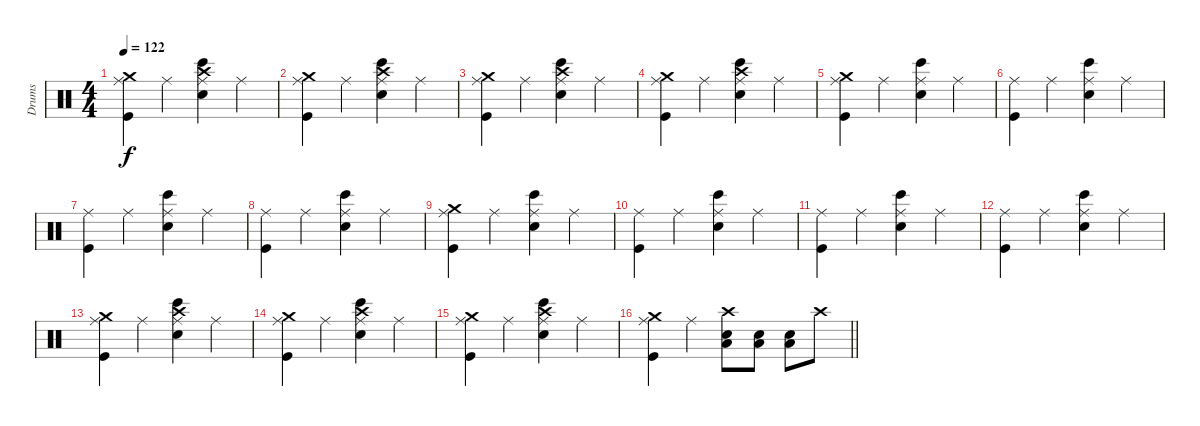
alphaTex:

\track ("Drums" "Drums") {instrument percussion}
\staff {score}
\articulation defaults
\ts (4 4)
\tempo 122
\clef neutral
\ks c
("Crash medium (hit)" "Ride (middle)" "Kick (hit)").4{dy f} "Ride (middle)".4 ("Crash high (hit)" "Ride (middle)" "Snare (hit) 2" "Bongo High (hit)").4 "Ride (middle)".4 |
("Crash medium (hit)" "Ride (middle)" "Kick (hit)").4 "Ride (middle)".4 ("Crash high (hit)" "Ride (middle)" "Snare (hit) 2" "Bongo High (hit)").4 "Ride (middle)".4 |
("Crash medium (hit)" "Ride (middle)" "Kick (hit)").4 "Ride (middle)".4 ("Crash high (hit)" "Ride (middle)" "Snare (hit) 2" "Bongo High (hit)").4 "Ride (middle)".4 |
("Crash medium (hit)" "Ride (middle)" "Kick (hit)").4 "Ride (middle)".4 ("Crash high (hit)" "Ride (middle)" "Snare (hit) 2" "Bongo High (hit)").4 "Ride (middle)".4 |
("Crash medium (hit)" "Ride (middle)" "Kick (hit)").4 "Ride (middle)".4 ("Ride (middle)" "Snare (hit) 2" "Bongo High (hit)").4 "Ride (middle)".4 |
("Ride (middle)" "Kick (hit)").4 "Ride (middle)".4 ("Ride (middle)" "Snare (hit) 2" "Bongo High (hit)").4 "Ride (middle)".4 |
("Ride (middle)" "Kick (hit)").4 "Ride (middle)".4 ("Ride (middle)" "Snare (hit) 2" "Bongo High (hit)").4 "Ride (middle)".4 |
("Ride (middle)" "Kick (hit)").4 "Ride (middle)".4 ("Ride (middle)" "Snare (hit) 2" "Bongo High (hit)").4 "Ride (middle)".4 |
("Crash medium (hit)" "Ride (middle)" "Kick (hit)").4 "Ride (middle)".4 ("Ride (middle)" "Snare (hit) 2" "Bongo High (hit)").4 "Ride (middle)".4 |
("Ride (middle)" "Kick (hit)").4 "Ride (middle)".4 ("Ride (middle)" "Snare (hit) 2" "Bongo High (hit)").4 "Ride (middle)".4 |
("Ride (middle)" "Kick (hit)").4 "Ride (middle)".4 ("Ride (middle)" "Snare (hit) 2" "Bongo High (hit)").4 "Ride (middle)".4 |
("Ride (middle)" "Kick (hit)").4 "Ride (middle)".4 ("Ride (middle)" "Snare (hit) 2" "Bongo High (hit)").4 "Ride (middle)".4 |
("Crash medium (hit)" "Ride (middle)" "Kick (hit)").4 "Ride (middle)".4 ("Crash high (hit)" "Ride (middle)" "Snare (hit) 2" "Bongo High (hit)").4 "Ride (middle)".4 |
("Crash medium (hit)" "Ride (middle)" "Kick (hit)").4 "Ride (middle)".4 ("Crash high (hit)" "Ride (middle)" "Snare (hit) 2" "Bongo High (hit)").4 "Ride (middle)".4 |
("Crash medium (hit)" "Ride (middle)" "Kick (hit)").4 "Ride (middle)".4 ("Crash high (hit)" "Ride (middle)" "Snare (hit) 2" "Bongo High (hit)").4 "Ride (middle)".4 |
\barLineRight lightlight
("Crash medium (hit)" "Ride (middle)" "Kick (hit)").4 "Ride (middle)".4 ("Crash high (hit)" "Snare (hit) 2" "Low Floor Tom (hit)").8 ("Snare (hit) 2" "Low Floor Tom (hit)").8 ("Snare (hit) 2" "Low Floor Tom (hit)").8 "Crash high (hit)".8
